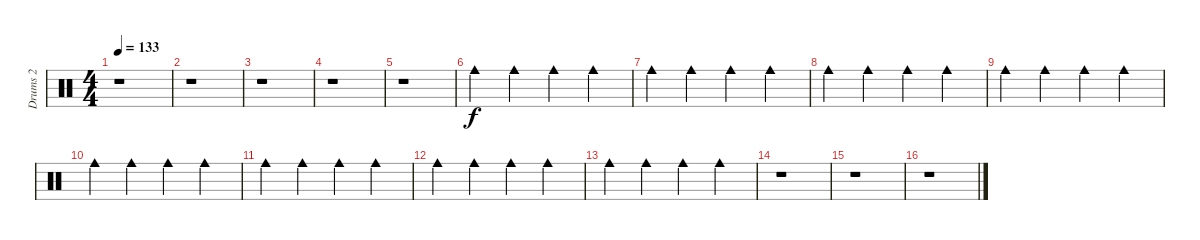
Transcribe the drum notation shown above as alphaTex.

\track ("Drums 2" "Drums 2") {instrument percussion}
\staff {score}
\articulation defaults
\ts (4 4)
\tempo 133
\clef neutral
\ks c
r.1{dy mp} |
r.1 |
r.1 |
r.1 |
r.1 |
"Cowbell medium (hit)".4{dy f} "Cowbell medium (hit)".4 "Cowbell medium (hit)".4 "Cowbell medium (hit)".4 |
"Cowbell medium (hit)".4 "Cowbell medium (hit)".4 "Cowbell medium (hit)".4 "Cowbell medium (hit)".4 |
"Cowbell medium (hit)".4 "Cowbell medium (hit)".4 "Cowbell medium (hit)".4 "Cowbell medium (hit)".4 |
"Cowbell medium (hit)".4 "Cowbell medium (hit)".4 "Cowbell medium (hit)".4 "Cowbell medium (hit)".4 |
"Cowbell medium (hit)".4 "Cowbell medium (hit)".4 "Cowbell medium (hit)".4 "Cowbell medium (hit)".4 |
"Cowbell medium (hit)".4 "Cowbell medium (hit)".4 "Cowbell medium (hit)".4 "Cowbell medium (hit)".4 |
"Cowbell medium (hit)".4 "Cowbell medium (hit)".4 "Cowbell medium (hit)".4 "Cowbell medium (hit)".4 |
"Cowbell medium (hit)".4 "Cowbell medium (hit)".4 "Cowbell medium (hit)".4 "Cowbell medium (hit)".4 |
r.1 |
r.1 |
r.1
